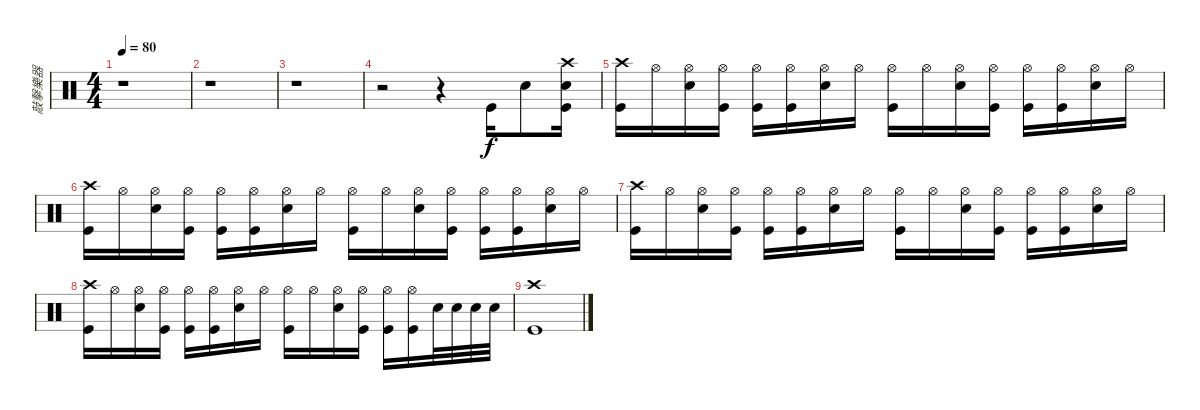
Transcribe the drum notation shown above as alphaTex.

\track ("敲擊樂器" "敲擊樂器") {instrument percussion}
\staff {score}
\articulation defaults
\ts (4 4)
\tempo 80
\clef neutral
\ks c
r.1{dy f} |
r.1 |
r.1 |
r.2 r.4 "Kick (hit)".16 "Snare (hit) 2".8 ("Crash high (hit)" "Snare (hit)" "Kick (hit)").16 |
("Crash high (hit)" "Kick (hit)").16 "Hi-Hat (open)".16 ("Hi-Hat (open)" "Snare (hit) 2").16 ("Hi-Hat (open)" "Kick (hit)").16 ("Hi-Hat (open)" "Kick (hit)").16 ("Hi-Hat (open)" "Kick (hit)").16 ("Hi-Hat (open)" "Snare (hit) 2").16 "Hi-Hat (open)".16 ("Hi-Hat (open)" "Kick (hit)").16 "Hi-Hat (open)".16 ("Hi-Hat (open)" "Snare (hit) 2").16 ("Hi-Hat (open)" "Kick (hit)").16 ("Hi-Hat (open)" "Kick (hit)").16 ("Hi-Hat (open)" "Kick (hit)").16 ("Hi-Hat (open)" "Snare (hit) 2").16 "Hi-Hat (open)".16 |
("Crash high (hit)" "Kick (hit)").16 "Hi-Hat (open)".16 ("Hi-Hat (open)" "Snare (hit) 2").16 ("Hi-Hat (open)" "Kick (hit)").16 ("Hi-Hat (open)" "Kick (hit)").16 ("Hi-Hat (open)" "Kick (hit)").16 ("Hi-Hat (open)" "Snare (hit) 2").16 "Hi-Hat (open)".16 ("Hi-Hat (open)" "Kick (hit)").16 "Hi-Hat (open)".16 ("Hi-Hat (open)" "Snare (hit) 2").16 ("Hi-Hat (open)" "Kick (hit)").16 ("Hi-Hat (open)" "Kick (hit)").16 ("Hi-Hat (open)" "Kick (hit)").16 ("Hi-Hat (open)" "Snare (hit) 2").16 "Hi-Hat (open)".16 |
("Crash high (hit)" "Kick (hit)").16 "Hi-Hat (open)".16 ("Hi-Hat (open)" "Snare (hit) 2").16 ("Hi-Hat (open)" "Kick (hit)").16 ("Hi-Hat (open)" "Kick (hit)").16 ("Hi-Hat (open)" "Kick (hit)").16 ("Hi-Hat (open)" "Snare (hit) 2").16 "Hi-Hat (open)".16 ("Hi-Hat (open)" "Kick (hit)").16 "Hi-Hat (open)".16 ("Hi-Hat (open)" "Snare (hit) 2").16 ("Hi-Hat (open)" "Kick (hit)").16 ("Hi-Hat (open)" "Kick (hit)").16 ("Hi-Hat (open)" "Kick (hit)").16 ("Hi-Hat (open)" "Snare (hit) 2").16 "Hi-Hat (open)".16 |
("Crash high (hit)" "Kick (hit)").16 "Hi-Hat (open)".16 ("Hi-Hat (open)" "Snare (hit) 2").16 ("Hi-Hat (open)" "Kick (hit)").16 ("Hi-Hat (open)" "Kick (hit)").16 ("Hi-Hat (open)" "Kick (hit)").16 ("Hi-Hat (open)" "Snare (hit) 2").16 "Hi-Hat (open)".16 ("Hi-Hat (open)" "Kick (hit)").16 "Hi-Hat (open)".16 ("Hi-Hat (open)" "Snare (hit) 2").16 ("Hi-Hat (open)" "Kick (hit)").16 ("Hi-Hat (open)" "Kick (hit)").16 ("Hi-Hat (open)" "Kick (hit)").16 "Snare (hit) 2".32 "Snare (hit) 2".32 "Snare (hit) 2".32 "Snare (hit) 2".32 |
("Crash high (hit)" "Kick (hit)").1
